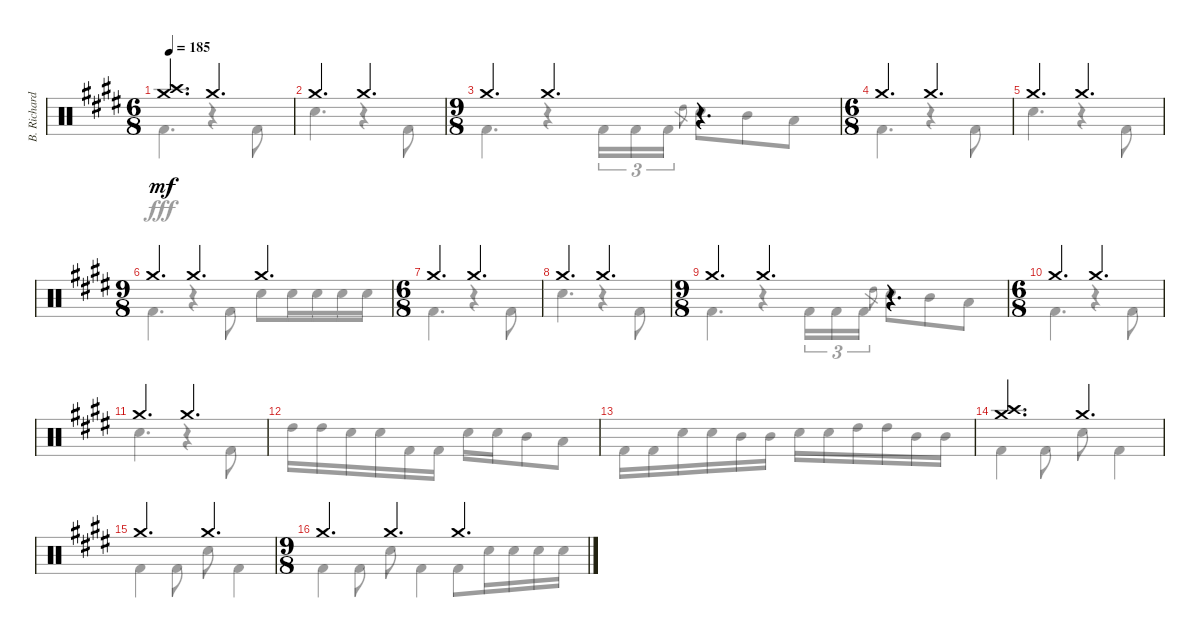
\track ("B. Richardson Drums" "B. Richard") {instrument percussion}
\staff {score}
\articulation defaults
\voice
\ts (6 8)
\tempo 185
\clef neutral
\ks c#minor
("Crash high (hit)" "Crash medium (hit)").4{d dy mf} "Crash medium (hit)".4{d} |
"Crash medium (hit)".4{d} "Crash medium (hit)".4{d} |
\ts (9 8)
"Crash medium (hit)".4{d} "Crash medium (hit)".4{d} r.4{d} |
\ts (6 8)
"Crash medium (hit)".4{d} "Crash medium (hit)".4{d} |
"Crash medium (hit)".4{d} "Crash medium (hit)".4{d} |
\ts (9 8)
"Crash medium (hit)".4{d} "Crash medium (hit)".4{d} "Crash medium (hit)".4{d} |
\ts (6 8)
"Crash medium (hit)".4{d} "Crash medium (hit)".4{d} |
"Crash medium (hit)".4{d} "Crash medium (hit)".4{d} |
\ts (9 8)
"Crash medium (hit)".4{d} "Crash medium (hit)".4{d} r.4{d} |
\ts (6 8)
"Crash medium (hit)".4{d} "Crash medium (hit)".4{d} |
"Crash medium (hit)".4{d} "Crash medium (hit)".4{d} |
|
|
("Crash high (hit)" "Crash medium (hit)").4{d} "Crash medium (hit)".4{d} |
"Crash medium (hit)".4{d} "Crash medium (hit)".4{d} |
\ts (9 8)
"Crash medium (hit)".4{d} "Crash medium (hit)".4{d} "Crash medium (hit)".4{d}
\voice
\clef neutral
\ottava regular
\simile none
\ks c#minor "Kick (hit) 2".4{d dy fff}
r.4 "Kick (hit) 2".8 |
"Electric Snare (hit)".4{d} r.4 "Kick (hit) 2".8 |
"Kick (hit) 2".4{d} r.4 "Kick (hit) 2".16{tu (3 2)} "Kick (hit) 2".16{tu (3 2)} "Kick (hit) 2".16{tu (3 2)} "High Tom (hit)".8{gr} "Electric Snare (hit)".8 "Mid Tom (hit)".8 "Low Tom (hit)".8 |
"Kick (hit) 2".4{d} r.4 "Kick (hit) 2".8 |
"Electric Snare (hit)".4{d} r.4 "Kick (hit) 2".8 |
"Kick (hit) 2".4{d} r.4 "Kick (hit) 2".8 "Electric Snare (hit)".8 "Electric Snare (hit)".16 "Electric Snare (hit)".16 "Electric Snare (hit)".16 "Electric Snare (hit)".16 |
"Kick (hit) 2".4{d} r.4 "Kick (hit) 2".8 |
"Electric Snare (hit)".4{d} r.4 "Kick (hit) 2".8 |
"Kick (hit) 2".4{d} r.4 "Kick (hit) 2".16{tu (3 2)} "Kick (hit) 2".16{tu (3 2)} "Kick (hit) 2".16{tu (3 2)} "High Tom (hit)".8{gr} "Electric Snare (hit)".8 "Mid Tom (hit)".8 "Low Tom (hit)".8 |
"Kick (hit) 2".4{d} r.4 "Kick (hit) 2".8 |
"Electric Snare (hit)".4{d} r.4 "Kick (hit) 2".8 |
"High Tom (hit)".16 "High Tom (hit)".16 "Electric Snare (hit)".16 "Electric Snare (hit)".16 "Kick (hit) 2".16 "Kick (hit) 2".16 "Electric Snare (hit)".16 "Electric Snare (hit)".16 "Mid Tom (hit)".8 "Low Tom (hit)".8 |
"Kick (hit) 2".16 "Kick (hit) 2".16 "Electric Snare (hit)".16 "Electric Snare (hit)".16 "Mid Tom (hit)".16 "Mid Tom (hit)".16 "Electric Snare (hit)".16 "Electric Snare (hit)".16 "High Tom (hit)".16 "High Tom (hit)".16 "Mid Tom (hit)".16 "Mid Tom (hit)".16 |
"Kick (hit) 2".4 "Kick (hit) 2".8 "Electric Snare (hit)".8 "Kick (hit) 2".4 |
"Kick (hit) 2".4 "Kick (hit) 2".8 "Electric Snare (hit)".8 "Kick (hit) 2".4 |
"Kick (hit) 2".4 "Kick (hit) 2".8 "Electric Snare (hit)".8 "Kick (hit) 2".4 "Kick (hit) 2".8 "Electric Snare (hit)".16 "Electric Snare (hit)".16 "Electric Snare (hit)".16 "Electric Snare (hit)".16
